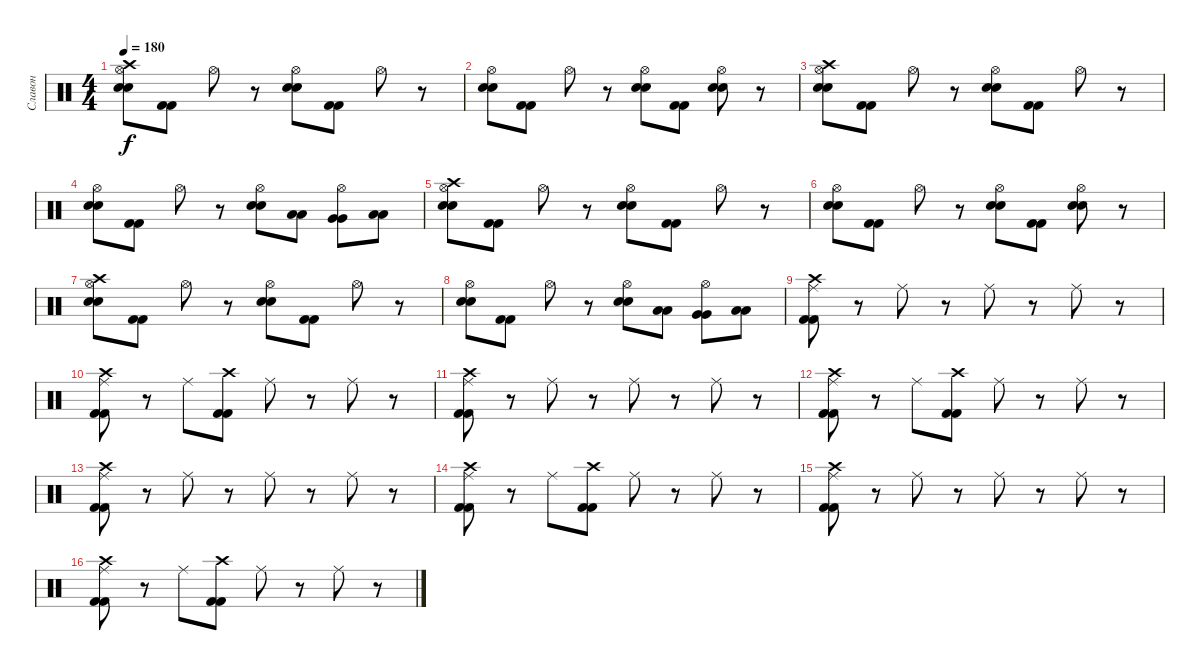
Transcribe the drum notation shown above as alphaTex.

\track ("Славон" "Славон") {instrument percussion}
\staff {score}
\articulation defaults
\ts (4 4)
\section ("" "")
\tempo 180
\clef neutral
\ks c
("Hi-Hat (open)" "Electric Snare (hit)" "Electric Snare (hit)" "Crash high (hit)").8{dy f} ("Kick (hit) 2" "Kick (hit) 2").8 "Hi-Hat (open)".8 r.8 ("Hi-Hat (open)" "Electric Snare (hit)" "Electric Snare (hit)").8 ("Kick (hit) 2" "Kick (hit) 2").8 "Hi-Hat (open)".8 r.8 |
("Hi-Hat (open)" "Electric Snare (hit)" "Electric Snare (hit)").8 ("Kick (hit) 2" "Kick (hit) 2").8 "Hi-Hat (open)".8 r.8 ("Hi-Hat (open)" "Electric Snare (hit)" "Electric Snare (hit)").8 ("Kick (hit) 2" "Kick (hit) 2").8 ("Hi-Hat (open)" "Electric Snare (hit)" "Electric Snare (hit)").8 r.8 |
("Hi-Hat (open)" "Electric Snare (hit)" "Electric Snare (hit)" "Crash high (hit)").8 ("Kick (hit) 2" "Kick (hit) 2").8 "Hi-Hat (open)".8 r.8 ("Hi-Hat (open)" "Electric Snare (hit)" "Electric Snare (hit)").8 ("Kick (hit) 2" "Kick (hit) 2").8 "Hi-Hat (open)".8 r.8 |
("Hi-Hat (open)" "Electric Snare (hit)" "Electric Snare (hit)").8 ("Kick (hit) 2" "Kick (hit) 2").8 "Hi-Hat (open)".8 r.8 ("Hi-Hat (open)" "Electric Snare (hit)" "Electric Snare (hit)").8 ("Low Tom (hit)" "Low Tom (hit)").8 ("Hi-Hat (open)" "Very Low Tom (hit)" "Very Low Tom (hit)").8 ("Low Floor Tom (hit)" "Low Floor Tom (hit)").8 |
("Hi-Hat (open)" "Electric Snare (hit)" "Electric Snare (hit)" "Crash high (hit)").8 ("Kick (hit) 2" "Kick (hit) 2").8 "Hi-Hat (open)".8 r.8 ("Hi-Hat (open)" "Electric Snare (hit)" "Electric Snare (hit)").8 ("Kick (hit) 2" "Kick (hit) 2").8 "Hi-Hat (open)".8 r.8 |
("Hi-Hat (open)" "Electric Snare (hit)" "Electric Snare (hit)").8 ("Kick (hit) 2" "Kick (hit) 2").8 "Hi-Hat (open)".8 r.8 ("Hi-Hat (open)" "Electric Snare (hit)" "Electric Snare (hit)").8 ("Kick (hit) 2" "Kick (hit) 2").8 ("Hi-Hat (open)" "Electric Snare (hit)" "Electric Snare (hit)").8 r.8 |
("Hi-Hat (open)" "Electric Snare (hit)" "Electric Snare (hit)" "Crash high (hit)").8 ("Kick (hit) 2" "Kick (hit) 2").8 "Hi-Hat (open)".8 r.8 ("Hi-Hat (open)" "Electric Snare (hit)" "Electric Snare (hit)").8 ("Kick (hit) 2" "Kick (hit) 2").8 "Hi-Hat (open)".8 r.8 |
("Hi-Hat (open)" "Electric Snare (hit)" "Electric Snare (hit)").8 ("Kick (hit) 2" "Kick (hit) 2").8 "Hi-Hat (open)".8 r.8 ("Hi-Hat (open)" "Electric Snare (hit)" "Electric Snare (hit)").8 ("Low Tom (hit)" "Low Tom (hit)").8 ("Hi-Hat (open)" "Very Low Tom (hit)" "Very Low Tom (hit)").8 ("Low Floor Tom (hit)" "Low Floor Tom (hit)").8 |
\section ("" "")
("Ride (middle)" "Kick (hit) 2" "Kick (hit) 2" "Crash high (hit)").8 r.8 "Ride (middle)".8 r.8 "Ride (middle)".8 r.8 "Ride (middle)".8 r.8 |
("Ride (middle)" "Kick (hit) 2" "Kick (hit) 2" "Crash high (hit)").8 r.8 "Ride (middle)".8 ("Kick (hit) 2" "Kick (hit) 2" "Crash high (hit)").8 "Ride (middle)".8 r.8 "Ride (middle)".8 r.8 |
("Ride (middle)" "Kick (hit) 2" "Kick (hit) 2" "Crash high (hit)").8 r.8 "Ride (middle)".8 r.8 "Ride (middle)".8 r.8 "Ride (middle)".8 r.8 |
("Ride (middle)" "Kick (hit) 2" "Kick (hit) 2" "Crash high (hit)").8 r.8 "Ride (middle)".8 ("Kick (hit) 2" "Kick (hit) 2" "Crash high (hit)").8 "Ride (middle)".8 r.8 "Ride (middle)".8 r.8 |
("Ride (middle)" "Kick (hit) 2" "Kick (hit) 2" "Crash high (hit)").8 r.8 "Ride (middle)".8 r.8 "Ride (middle)".8 r.8 "Ride (middle)".8 r.8 |
("Ride (middle)" "Kick (hit) 2" "Kick (hit) 2" "Crash high (hit)").8 r.8 "Ride (middle)".8 ("Kick (hit) 2" "Kick (hit) 2" "Crash high (hit)").8 "Ride (middle)".8 r.8 "Ride (middle)".8 r.8 |
("Ride (middle)" "Kick (hit) 2" "Kick (hit) 2" "Crash high (hit)").8 r.8 "Ride (middle)".8 r.8 "Ride (middle)".8 r.8 "Ride (middle)".8 r.8 |
("Ride (middle)" "Kick (hit) 2" "Kick (hit) 2" "Crash high (hit)").8 r.8 "Ride (middle)".8 ("Kick (hit) 2" "Kick (hit) 2" "Crash high (hit)").8 "Ride (middle)".8 r.8 "Ride (middle)".8 r.8
